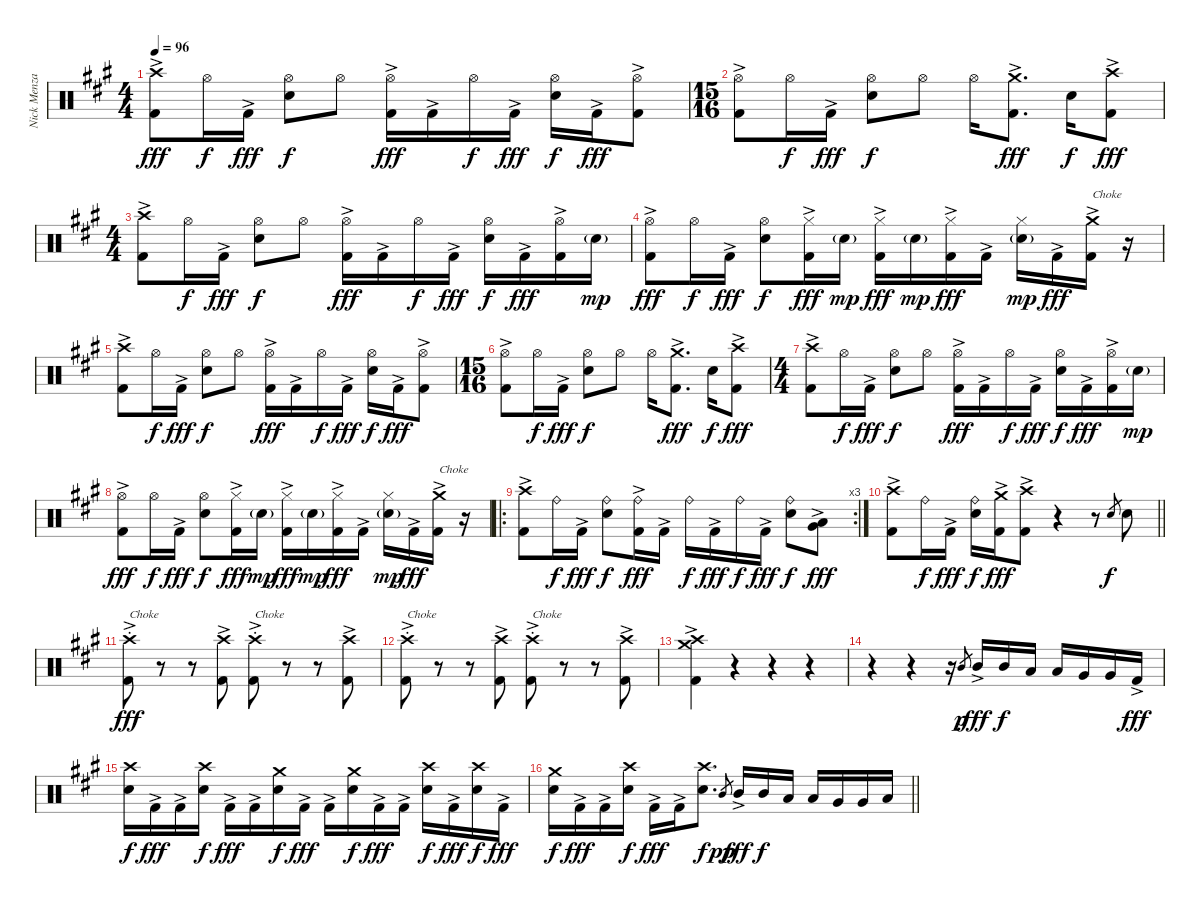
\track ("Nick Menza" "Nick Menza") {instrument percussion}
\staff {score}
\articulation defaults
\ts (4 4)
\tempo 96
\clef neutral
\ks f#minor
("Crash high (hit)" "Kick (hit) 2"{ac}).8{dy fff} "Hi-Hat (open)".16{dy f} "Kick (hit) 2"{ac}.16{dy fff} ("Hi-Hat (open)" "Snare (hit) 2").8{dy f} "Hi-Hat (open)".8 ("Hi-Hat (open)" "Kick (hit) 2"{ac}).16{dy fff} "Kick (hit) 2"{ac}.16 "Hi-Hat (open)".16{dy f} "Kick (hit) 2"{ac}.16{dy fff} ("Hi-Hat (open)" "Snare (hit) 2").16{dy f} "Kick (hit) 2"{ac}.16{dy fff} ("Hi-Hat (open)" "Kick (hit) 2"{ac}).8 |
\ts (15 16)
("Hi-Hat (open)" "Kick (hit) 2"{ac}).8 "Hi-Hat (open)".16{dy f} "Kick (hit) 2"{ac}.16{dy fff} ("Hi-Hat (open)" "Snare (hit) 2").8{dy f} "Hi-Hat (open)".8 "Hi-Hat (open)".16 ("Crash medium (hit)" "Kick (hit) 2"{ac}).8{d dy fff} "Snare (hit) 2".16{dy f} ("Crash high (hit)" "Kick (hit) 2"{ac}).8{dy fff} |
\ts (4 4)
("Crash high (hit)" "Kick (hit) 2"{ac}).8 "Hi-Hat (open)".16{dy f} "Kick (hit) 2"{ac}.16{dy fff} ("Hi-Hat (open)" "Snare (hit) 2").8{dy f} "Hi-Hat (open)".8 ("Hi-Hat (open)" "Kick (hit) 2"{ac}).16{dy fff} "Kick (hit) 2"{ac}.16 "Hi-Hat (open)".16{dy f} "Kick (hit) 2"{ac}.16{dy fff} ("Hi-Hat (open)" "Snare (hit) 2").16{dy f} "Kick (hit) 2"{ac}.16{dy fff} ("Hi-Hat (open)" "Kick (hit) 2"{ac}).16 "Snare (hit) 2"{g}.16{dy mp} |
("Hi-Hat (open)" "Kick (hit) 2"{ac}).8{dy fff} "Hi-Hat (open)".16{dy f} "Kick (hit) 2"{ac}.16{dy fff} ("Hi-Hat (open)" "Snare (hit) 2").8{dy f} ("Hi-Hat (closed)" "Kick (hit) 2"{ac}).16{dy fff} "Snare (hit) 2"{g}.16{dy mp} ("Hi-Hat (closed)" "Kick (hit) 2"{ac}).16{dy fff} "Snare (hit) 2"{g}.16{dy mp} ("Hi-Hat (closed)" "Kick (hit) 2"{ac}).16{dy fff} "Kick (hit) 2"{ac}.16 ("Hi-Hat (closed)" "Snare (hit) 2"{g}).16{dy mp} "Kick (hit) 2"{ac}.16{dy fff} ("Crash medium (hit)" "Kick (hit) 2"{ac}).16{txt "Choke"} r.16 |
("Crash high (hit)" "Kick (hit) 2"{ac}).8 "Hi-Hat (open)".16{dy f} "Kick (hit) 2"{ac}.16{dy fff} ("Hi-Hat (open)" "Snare (hit) 2").8{dy f} "Hi-Hat (open)".8 ("Hi-Hat (open)" "Kick (hit) 2"{ac}).16{dy fff} "Kick (hit) 2"{ac}.16 "Hi-Hat (open)".16{dy f} "Kick (hit) 2"{ac}.16{dy fff} ("Hi-Hat (open)" "Snare (hit) 2").16{dy f} "Kick (hit) 2"{ac}.16{dy fff} ("Hi-Hat (open)" "Kick (hit) 2"{ac}).8 |
\ts (15 16)
("Hi-Hat (open)" "Kick (hit) 2"{ac}).8 "Hi-Hat (open)".16{dy f} "Kick (hit) 2"{ac}.16{dy fff} ("Hi-Hat (open)" "Snare (hit) 2").8{dy f} "Hi-Hat (open)".8 "Hi-Hat (open)".16 ("Crash medium (hit)" "Kick (hit) 2"{ac}).8{d dy fff} "Snare (hit) 2".16{dy f} ("Crash high (hit)" "Kick (hit) 2"{ac}).8{dy fff} |
\ts (4 4)
("Crash high (hit)" "Kick (hit) 2"{ac}).8 "Hi-Hat (open)".16{dy f} "Kick (hit) 2"{ac}.16{dy fff} ("Hi-Hat (open)" "Snare (hit) 2").8{dy f} "Hi-Hat (open)".8 ("Hi-Hat (open)" "Kick (hit) 2"{ac}).16{dy fff} "Kick (hit) 2"{ac}.16 "Hi-Hat (open)".16{dy f} "Kick (hit) 2"{ac}.16{dy fff} ("Hi-Hat (open)" "Snare (hit) 2").16{dy f} "Kick (hit) 2"{ac}.16{dy fff} ("Hi-Hat (open)" "Kick (hit) 2"{ac}).16 "Snare (hit) 2"{g}.16{dy mp} |
("Hi-Hat (open)" "Kick (hit) 2"{ac}).8{dy fff} "Hi-Hat (open)".16{dy f} "Kick (hit) 2"{ac}.16{dy fff} ("Hi-Hat (open)" "Snare (hit) 2").8{dy f} ("Hi-Hat (closed)" "Kick (hit) 2"{ac}).16{dy fff} "Snare (hit) 2"{g}.16{dy mp} ("Hi-Hat (closed)" "Kick (hit) 2"{ac}).16{dy fff} "Snare (hit) 2"{g}.16{dy mp} ("Hi-Hat (closed)" "Kick (hit) 2"{ac}).16{dy fff} "Kick (hit) 2"{ac}.16 ("Hi-Hat (closed)" "Snare (hit) 2"{g}).16{dy mp} "Kick (hit) 2"{ac}.16{dy fff} ("Crash medium (hit)" "Kick (hit) 2"{ac}).16{txt "Choke"} r.16 |
\ro
\rc 3
("Crash high (hit)" "Kick (hit) 2"{ac}).8 "Ride (bell)".16{dy f} "Kick (hit) 2"{ac}.16{dy fff} ("Ride (bell)" "Snare (hit) 2").8{dy f} ("Ride (bell)" "Kick (hit) 2"{ac}).16{dy fff} "Kick (hit) 2"{ac}.16 "Ride (bell)".16{dy f} "Kick (hit) 2"{ac}.16{dy fff} "Ride (bell)".16{dy f} "Kick (hit) 2"{ac}.16{dy fff} ("Ride (bell)" "Snare (hit) 2").8{dy f} ("Low Tom (hit)"{ac} "Very Low Tom (hit)"{ac}).8{dy fff} |
\barLineRight lightlight
("Crash high (hit)" "Kick (hit) 2"{ac}).8 "Ride (bell)".16{dy f} "Kick (hit) 2"{ac}.16{dy fff} ("Ride (bell)" "Snare (hit) 2").16{dy f} ("Crash medium (hit)" "Kick (hit) 2"{ac}).16{dy fff} ("Crash high (hit)" "Kick (hit) 2"{ac}).8 r.4 r.8 "Snare (hit) 2".8{gr dy f} "Snare (hit) 2".8 |
("Crash high (hit)"{st} "Kick (hit) 2"{ac}).8{txt "Choke " dy fff} r.8 r.8 ("Crash high (hit)" "Kick (hit) 2"{ac}).8 ("Crash high (hit)"{st} "Kick (hit) 2"{ac}).8{txt "Choke"} r.8 r.8 ("Crash high (hit)" "Kick (hit) 2"{ac}).8 |
("Crash high (hit)"{st} "Kick (hit) 2"{ac}).8{txt "Choke"} r.8 r.8 ("Crash high (hit)" "Kick (hit) 2"{ac}).8 ("Crash high (hit)"{st} "Kick (hit) 2"{ac}).8{txt "Choke"} r.8 r.8 ("Crash high (hit)" "Kick (hit) 2"{ac}).8 |
("Crash high (hit)" "Crash medium (hit)" "Kick (hit) 2"{ac}).4 r.4 r.4 r.4 |
r.4 r.4 r.16 "Mid Tom (hit)".8{gr dy p} "Mid Tom (hit)"{ac}.16{dy fff} "Mid Tom (hit)".16{dy f} "Low Tom (hit)".16 "Low Tom (hit)".16 "Very Low Tom (hit)".16 "Very Low Tom (hit)".16 "Kick (hit) 2"{ac}.16{dy fff} |
("Crash high (hit)" "Snare (hit) 2").16{dy f} "Kick (hit) 2"{ac}.16{dy fff} "Kick (hit) 2"{ac}.16 ("Crash high (hit)" "Snare (hit) 2").16{dy f} "Kick (hit) 2"{ac}.16{dy fff} "Kick (hit) 2"{ac}.16 ("Crash medium (hit)" "Snare (hit) 2").16{dy f} "Kick (hit) 2"{ac}.16{dy fff} "Kick (hit) 2"{ac}.16 ("Crash medium (hit)" "Snare (hit) 2").16{dy f} "Kick (hit) 2"{ac}.16{dy fff} "Kick (hit) 2"{ac}.16 ("Crash high (hit)" "Snare (hit) 2").16{dy f} "Kick (hit) 2"{ac}.16{dy fff} ("Crash high (hit)" "Snare (hit) 2").16{dy f} "Kick (hit) 2"{ac}.16{dy fff} |
\barLineRight lightlight
("Crash medium (hit)" "Snare (hit) 2").16{dy f} "Kick (hit) 2"{ac}.16{dy fff} "Kick (hit) 2"{ac}.16 ("Crash high (hit)" "Snare (hit) 2").16{dy f} "Kick (hit) 2"{ac}.16{dy fff} "Kick (hit) 2"{ac}.16 ("Crash high (hit)" "Snare (hit) 2").8{d dy f} "Mid Tom (hit)".8{gr dy pp} "Mid Tom (hit)"{ac}.16{dy fff} "Mid Tom (hit)".16{dy f} "Low Tom (hit)".16 "Low Tom (hit)".16 "Very Low Tom (hit)".16 "Very Low Tom (hit)".16 "Low Floor Tom (hit)".16
